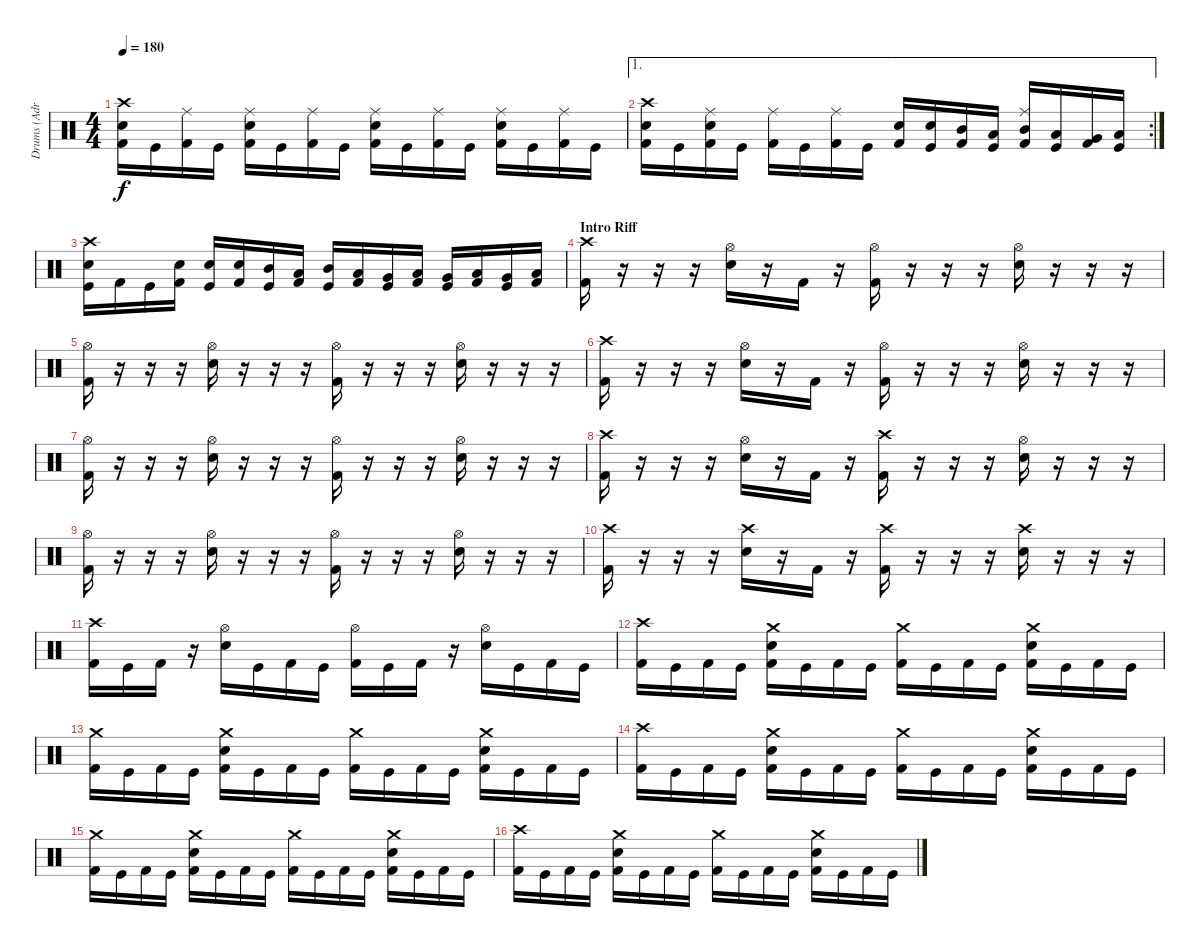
\track ("Drums (Adrian)" "Drums (Adr") {instrument percussion}
\staff {score}
\articulation defaults
\ts (4 4)
\tempo 180
\clef neutral
\ks c
("Crash high (hit)" "Electric Snare (hit)" "Kick (hit) 2").16{dy f} "Kick (hit)".16 ("Ride (middle)" "Kick (hit) 2").16 "Kick (hit)".16 ("Ride (middle)" "Electric Snare (hit)" "Kick (hit) 2").16 "Kick (hit)".16 ("Ride (middle)" "Kick (hit) 2").16 "Kick (hit)".16 ("Ride (middle)" "Electric Snare (hit)" "Kick (hit) 2").16 "Kick (hit)".16 ("Ride (middle)" "Kick (hit) 2").16 "Kick (hit)".16 ("Ride (middle)" "Electric Snare (hit)" "Kick (hit) 2").16 "Kick (hit)".16 ("Ride (middle)" "Kick (hit) 2").16 "Kick (hit)".16 |
\ae 1
\rc 2
("Crash high (hit)" "Electric Snare (hit)" "Kick (hit) 2").16 "Kick (hit)".16 ("Ride (middle)" "Electric Snare (hit)" "Kick (hit) 2").16 "Kick (hit)".16 ("Ride (middle)" "Kick (hit) 2").16 "Kick (hit)".16 ("Ride (middle)" "Kick (hit) 2").16 "Kick (hit)".16 ("Electric Snare (hit)" "Kick (hit) 2").16 ("Electric Snare (hit)" "Kick (hit)").16 ("Mid Tom (hit)" "Kick (hit) 2").16 ("Low Tom (hit)" "Kick (hit)").16 ("Ride (middle)" "Mid Tom (hit)" "Kick (hit) 2").16 ("Low Tom (hit)" "Kick (hit)").16 ("Very Low Tom (hit)" "Kick (hit) 2").16 ("Low Tom (hit)" "Kick (hit)").16 |
("Crash high (hit)" "Electric Snare (hit)" "Kick (hit)").16 "Kick (hit) 2".16 "Kick (hit)".16 ("Electric Snare (hit)" "Kick (hit) 2").16 ("Electric Snare (hit)" "Kick (hit)").16 ("Electric Snare (hit)" "Kick (hit) 2").16 ("Mid Tom (hit)" "Kick (hit)").16 ("Low Tom (hit)" "Kick (hit) 2").16 ("Mid Tom (hit)" "Kick (hit)").16 ("Low Tom (hit)" "Kick (hit) 2").16 ("Very Low Tom (hit)" "Kick (hit)").16 ("Low Tom (hit)" "Kick (hit) 2").16 ("Very Low Tom (hit)" "Kick (hit)").16 ("Low Floor Tom (hit)" "Kick (hit) 2").16 ("Very Low Tom (hit)" "Kick (hit)").16 ("Low Floor Tom (hit)" "Kick (hit) 2").16 |
\section ("" "Intro Riff")
("Crash high (hit)" "Kick (hit) 2").16 r.16 r.16 r.16 ("Hi-Hat (open)" "Electric Snare (hit)").16 r.16 "Kick (hit) 2".16 r.16 ("Hi-Hat (open)" "Kick (hit) 2").16 r.16 r.16 r.16 ("Hi-Hat (open)" "Electric Snare (hit)").16 r.16 r.16 r.16 |
("Hi-Hat (open)" "Kick (hit) 2").16 r.16 r.16 r.16 ("Hi-Hat (open)" "Electric Snare (hit)").16 r.16 r.16 r.16 ("Hi-Hat (open)" "Kick (hit) 2").16 r.16 r.16 r.16 ("Hi-Hat (open)" "Electric Snare (hit)").16 r.16 r.16 r.16 |
("Crash high (hit)" "Kick (hit) 2").16 r.16 r.16 r.16 ("Hi-Hat (open)" "Electric Snare (hit)").16 r.16 "Kick (hit) 2".16 r.16 ("Hi-Hat (open)" "Kick (hit) 2").16 r.16 r.16 r.16 ("Hi-Hat (open)" "Electric Snare (hit)").16 r.16 r.16 r.16 |
("Hi-Hat (open)" "Kick (hit) 2").16 r.16 r.16 r.16 ("Hi-Hat (open)" "Electric Snare (hit)").16 r.16 r.16 r.16 ("Hi-Hat (open)" "Kick (hit) 2").16 r.16 r.16 r.16 ("Hi-Hat (open)" "Electric Snare (hit)").16 r.16 r.16 r.16 |
("Crash high (hit)" "Kick (hit) 2").16 r.16 r.16 r.16 ("Hi-Hat (open)" "Electric Snare (hit)").16 r.16 "Kick (hit) 2".16 r.16 ("Crash high (hit)" "Kick (hit) 2").16 r.16 r.16 r.16 ("Hi-Hat (open)" "Electric Snare (hit)").16 r.16 r.16 r.16 |
("Hi-Hat (open)" "Kick (hit) 2").16 r.16 r.16 r.16 ("Hi-Hat (open)" "Electric Snare (hit)").16 r.16 r.16 r.16 ("Hi-Hat (open)" "Kick (hit) 2").16 r.16 r.16 r.16 ("Hi-Hat (open)" "Electric Snare (hit)").16 r.16 r.16 r.16 |
("Crash high (hit)" "Kick (hit) 2").16 r.16 r.16 r.16 ("Crash high (hit)" "Electric Snare (hit)").16 r.16 "Kick (hit) 2".16 r.16 ("Crash high (hit)" "Kick (hit) 2").16 r.16 r.16 r.16 ("Crash high (hit)" "Electric Snare (hit)").16 r.16 r.16 r.16 |
("Crash high (hit)" "Kick (hit) 2").16 "Kick (hit)".16 "Kick (hit) 2".16 r.16 ("Hi-Hat (open)" "Electric Snare (hit)").16 "Kick (hit)".16 "Kick (hit) 2".16 "Kick (hit)".16 ("Hi-Hat (open)" "Kick (hit) 2").16 "Kick (hit)".16 "Kick (hit) 2".16 r.16 ("Hi-Hat (open)" "Electric Snare (hit)").16 "Kick (hit)".16 "Kick (hit) 2".16 "Kick (hit)".16 |
("Crash high (hit)" "Kick (hit) 2").16 "Kick (hit)".16 "Kick (hit) 2".16 "Kick (hit)".16 ("Crash medium (hit)" "Electric Snare (hit)" "Kick (hit) 2").16 "Kick (hit)".16 "Kick (hit) 2".16 "Kick (hit)".16 ("Crash medium (hit)" "Kick (hit) 2").16 "Kick (hit)".16 "Kick (hit) 2".16 "Kick (hit)".16 ("Crash medium (hit)" "Electric Snare (hit)" "Kick (hit) 2").16 "Kick (hit)".16 "Kick (hit) 2".16 "Kick (hit)".16 |
("Crash medium (hit)" "Kick (hit) 2").16 "Kick (hit)".16 "Kick (hit) 2".16 "Kick (hit)".16 ("Crash medium (hit)" "Electric Snare (hit)" "Kick (hit) 2").16 "Kick (hit)".16 "Kick (hit) 2".16 "Kick (hit)".16 ("Crash medium (hit)" "Kick (hit) 2").16 "Kick (hit)".16 "Kick (hit) 2".16 "Kick (hit)".16 ("Crash medium (hit)" "Electric Snare (hit)" "Kick (hit) 2").16 "Kick (hit)".16 "Kick (hit) 2".16 "Kick (hit)".16 |
("Crash high (hit)" "Kick (hit) 2").16 "Kick (hit)".16 "Kick (hit) 2".16 "Kick (hit)".16 ("Crash medium (hit)" "Electric Snare (hit)" "Kick (hit) 2").16 "Kick (hit)".16 "Kick (hit) 2".16 "Kick (hit)".16 ("Crash medium (hit)" "Kick (hit) 2").16 "Kick (hit)".16 "Kick (hit) 2".16 "Kick (hit)".16 ("Crash medium (hit)" "Electric Snare (hit)" "Kick (hit) 2").16 "Kick (hit)".16 "Kick (hit) 2".16 "Kick (hit)".16 |
("Crash medium (hit)" "Kick (hit) 2").16 "Kick (hit)".16 "Kick (hit) 2".16 "Kick (hit)".16 ("Crash medium (hit)" "Electric Snare (hit)" "Kick (hit) 2").16 "Kick (hit)".16 "Kick (hit) 2".16 "Kick (hit)".16 ("Crash medium (hit)" "Kick (hit) 2").16 "Kick (hit)".16 "Kick (hit) 2".16 "Kick (hit)".16 ("Crash medium (hit)" "Electric Snare (hit)" "Kick (hit) 2").16 "Kick (hit)".16 "Kick (hit) 2".16 "Kick (hit)".16 |
("Crash high (hit)" "Kick (hit) 2").16 "Kick (hit)".16 "Kick (hit) 2".16 "Kick (hit)".16 ("Crash medium (hit)" "Electric Snare (hit)" "Kick (hit) 2").16 "Kick (hit)".16 "Kick (hit) 2".16 "Kick (hit)".16 ("Crash medium (hit)" "Kick (hit) 2").16 "Kick (hit)".16 "Kick (hit) 2".16 "Kick (hit)".16 ("Crash medium (hit)" "Electric Snare (hit)" "Kick (hit) 2").16 "Kick (hit)".16 "Kick (hit) 2".16 "Kick (hit)".16
